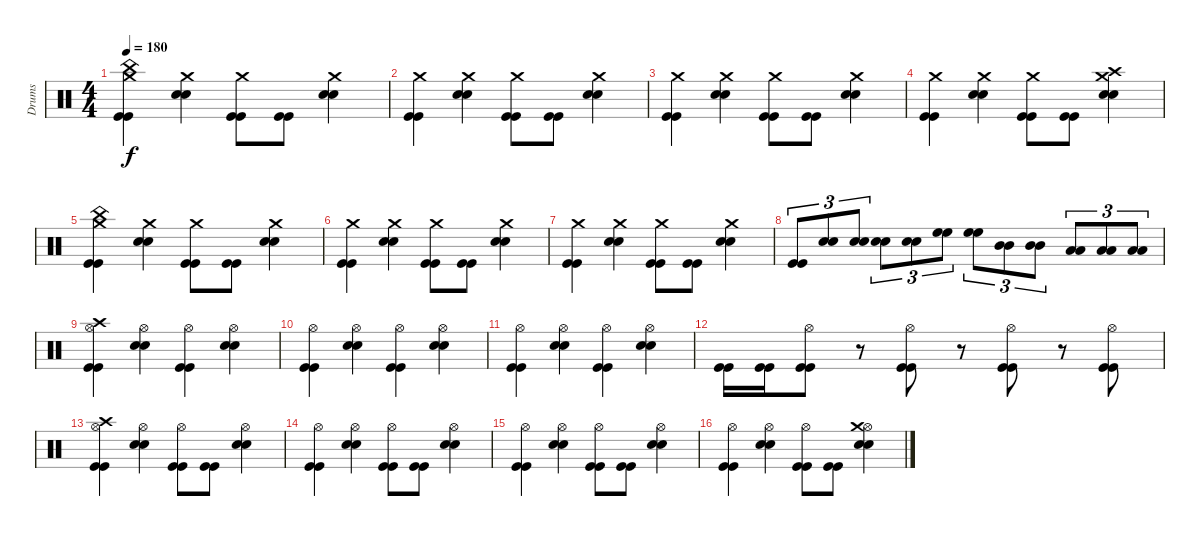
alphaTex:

\track ("Drums" "Drums") {instrument percussion}
\staff {score}
\articulation defaults
\ts (4 4)
\tempo 180
\clef neutral
\ks c
("China (hit)" "Crash medium (hit)" "Kick (hit)" "Kick (hit)").4{dy f} ("Crash medium (hit)" "Snare (hit) 2" "Snare (hit) 2").4 ("Crash medium (hit)" "Kick (hit)" "Kick (hit)").8 ("Kick (hit)" "Kick (hit)").8 ("Crash medium (hit)" "Snare (hit) 2" "Snare (hit) 2").4 |
("Crash medium (hit)" "Kick (hit)" "Kick (hit)").4 ("Crash medium (hit)" "Snare (hit) 2" "Snare (hit) 2").4 ("Crash medium (hit)" "Kick (hit)" "Kick (hit)").8 ("Kick (hit)" "Kick (hit)").8 ("Crash medium (hit)" "Snare (hit) 2" "Snare (hit) 2").4 |
("Crash medium (hit)" "Kick (hit)" "Kick (hit)").4 ("Crash medium (hit)" "Snare (hit) 2" "Snare (hit) 2").4 ("Crash medium (hit)" "Kick (hit)" "Kick (hit)").8 ("Kick (hit)" "Kick (hit)").8 ("Crash medium (hit)" "Snare (hit) 2" "Snare (hit) 2").4 |
("Crash medium (hit)" "Kick (hit)" "Kick (hit)").4 ("Crash medium (hit)" "Snare (hit) 2" "Snare (hit) 2").4 ("Crash medium (hit)" "Kick (hit)" "Kick (hit)").8 ("Kick (hit)" "Kick (hit)").8 ("Crash high (hit)" "Crash medium (hit)" "Snare (hit) 2" "Snare (hit) 2").4 |
("China (hit)" "Crash medium (hit)" "Kick (hit)" "Kick (hit)").4 ("Crash medium (hit)" "Snare (hit) 2" "Snare (hit) 2").4 ("Crash medium (hit)" "Kick (hit)" "Kick (hit)").8 ("Kick (hit)" "Kick (hit)").8 ("Crash medium (hit)" "Snare (hit) 2" "Snare (hit) 2").4 |
("Crash medium (hit)" "Kick (hit)" "Kick (hit)").4 ("Crash medium (hit)" "Snare (hit) 2" "Snare (hit) 2").4 ("Crash medium (hit)" "Kick (hit)" "Kick (hit)").8 ("Kick (hit)" "Kick (hit)").8 ("Crash medium (hit)" "Snare (hit) 2" "Snare (hit) 2").4 |
("Crash medium (hit)" "Kick (hit)" "Kick (hit)").4 ("Crash medium (hit)" "Snare (hit) 2" "Snare (hit) 2").4 ("Crash medium (hit)" "Kick (hit)" "Kick (hit)").8 ("Kick (hit)" "Kick (hit)").8 ("Crash medium (hit)" "Snare (hit) 2" "Snare (hit) 2").4 |
("Kick (hit)" "Kick (hit)").8{tu (3 2)} ("Snare (hit) 2" "Snare (hit) 2").8{tu (3 2)} ("Snare (hit) 2" "Snare (hit) 2").8{tu (3 2)} ("Snare (hit) 2" "Snare (hit) 2").8{tu (3 2)} ("Snare (hit) 2" "Snare (hit) 2").8{tu (3 2)} ("High Floor Tom (hit)" "High Floor Tom (hit)").8{tu (3 2)} ("High Floor Tom (hit)" "High Floor Tom (hit)").8{tu (3 2)} ("Mid Tom (hit)" "Mid Tom (hit)").8{tu (3 2)} ("Mid Tom (hit)" "Mid Tom (hit)").8{tu (3 2)} ("Low Tom (hit)" "Low Tom (hit)").8{tu (3 2)} ("Low Tom (hit)" "Low Tom (hit)").8{tu (3 2)} ("Low Floor Tom (hit)" "Low Floor Tom (hit)").8{tu (3 2)} |
("Kick (hit)" "Kick (hit)" "Hi-Hat (open)" "Crash high (hit)").4 ("Snare (hit) 2" "Snare (hit) 2" "Hi-Hat (open)").4 ("Kick (hit)" "Kick (hit)" "Hi-Hat (open)").4 ("Snare (hit) 2" "Snare (hit) 2" "Hi-Hat (open)").4 |
("Kick (hit)" "Kick (hit)" "Hi-Hat (open)").4 ("Snare (hit) 2" "Snare (hit) 2" "Hi-Hat (open)").4 ("Kick (hit)" "Kick (hit)" "Hi-Hat (open)").4 ("Snare (hit) 2" "Snare (hit) 2" "Hi-Hat (open)").4 |
("Kick (hit)" "Kick (hit)" "Hi-Hat (open)").4 ("Snare (hit) 2" "Snare (hit) 2" "Hi-Hat (open)").4 ("Kick (hit)" "Kick (hit)" "Hi-Hat (open)").4 ("Snare (hit) 2" "Snare (hit) 2" "Hi-Hat (open)").4 |
("Kick (hit)" "Kick (hit)").16 ("Kick (hit)" "Kick (hit)").16 ("Kick (hit)" "Kick (hit)" "Hi-Hat (open)").8 r.8 ("Kick (hit)" "Kick (hit)" "Hi-Hat (open)").8 r.8 ("Kick (hit)" "Kick (hit)" "Hi-Hat (open)").8 r.8 ("Kick (hit)" "Kick (hit)" "Hi-Hat (open)").8 |
("Kick (hit)" "Kick (hit)" "Hi-Hat (open)" "Crash high (hit)").4 ("Snare (hit) 2" "Snare (hit) 2" "Hi-Hat (open)").4 ("Kick (hit)" "Kick (hit)" "Hi-Hat (open)").8 ("Kick (hit)" "Kick (hit)").8 ("Snare (hit) 2" "Snare (hit) 2" "Hi-Hat (open)").4 |
("Kick (hit)" "Kick (hit)" "Hi-Hat (open)").4 ("Snare (hit) 2" "Snare (hit) 2" "Hi-Hat (open)").4 ("Kick (hit)" "Kick (hit)" "Hi-Hat (open)").8 ("Kick (hit)" "Kick (hit)").8 ("Snare (hit) 2" "Snare (hit) 2" "Hi-Hat (open)").4 |
("Kick (hit)" "Kick (hit)" "Hi-Hat (open)").4 ("Snare (hit) 2" "Snare (hit) 2" "Hi-Hat (open)").4 ("Kick (hit)" "Kick (hit)" "Hi-Hat (open)").8 ("Kick (hit)" "Kick (hit)").8 ("Snare (hit) 2" "Snare (hit) 2" "Hi-Hat (open)").4 |
("Kick (hit)" "Kick (hit)" "Hi-Hat (open)").4 ("Snare (hit) 2" "Snare (hit) 2" "Hi-Hat (open)").4 ("Kick (hit)" "Kick (hit)" "Hi-Hat (open)").8 ("Kick (hit)" "Kick (hit)").8 ("Snare (hit) 2" "Snare (hit) 2" "Hi-Hat (open)" "Crash medium (hit)").4
